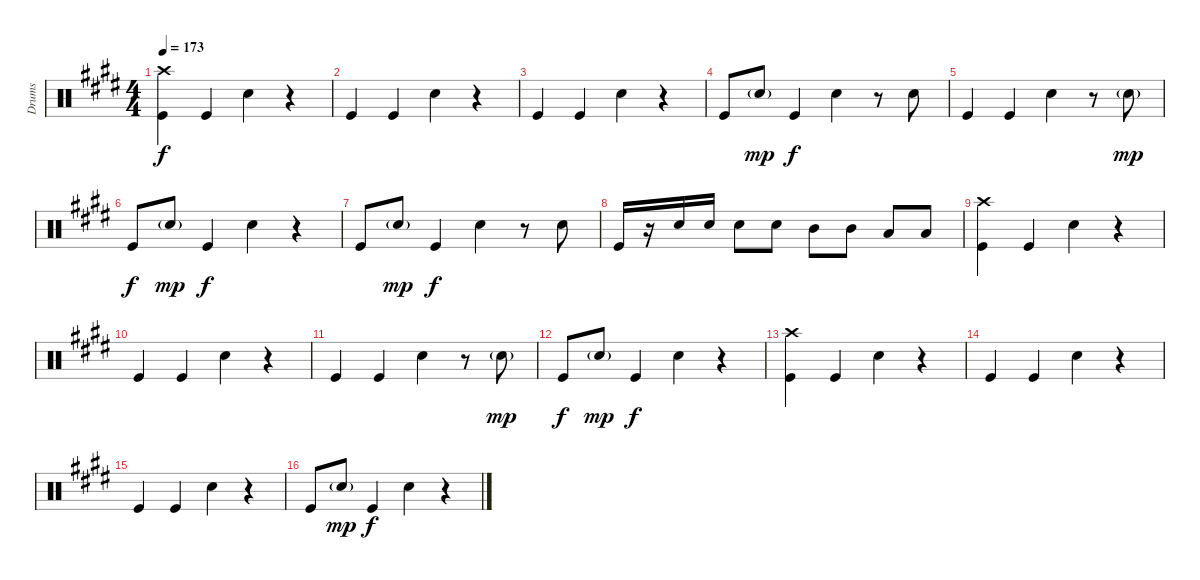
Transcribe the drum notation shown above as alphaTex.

\track ("Drums" "Drums") {instrument percussion}
\staff {score}
\articulation defaults
\ts (4 4)
\tempo 173
\clef neutral
\ks e
("Crash high (hit)" "Kick (hit)").4{dy f} "Kick (hit)".4 "Snare (hit) 2".4 r.4 |
"Kick (hit)".4 "Kick (hit)".4 "Snare (hit) 2".4 r.4 |
"Kick (hit)".4 "Kick (hit)".4 "Snare (hit) 2".4 r.4 |
"Kick (hit)".8 "Snare (hit) 2"{g}.8{dy mp} "Kick (hit)".4{dy f} "Snare (hit) 2".4 r.8 "Snare (hit) 2".8 |
"Kick (hit)".4 "Kick (hit)".4 "Snare (hit) 2".4 r.8 "Snare (hit) 2"{g}.8{dy mp} |
"Kick (hit)".8{dy f} "Snare (hit) 2"{g}.8{dy mp} "Kick (hit)".4{dy f} "Snare (hit) 2".4 r.4 |
"Kick (hit)".8 "Snare (hit) 2"{g}.8{dy mp} "Kick (hit)".4{dy f} "Snare (hit) 2".4 r.8 "Snare (hit) 2".8 |
"Kick (hit)".16 r.16 "Snare (hit) 2".16 "Snare (hit) 2".16 "Snare (hit) 2".8 "Snare (hit) 2".8 "Mid Tom (hit)".8 "Mid Tom (hit)".8 "Low Tom (hit)".8 "Low Tom (hit)".8 |
("Crash high (hit)" "Kick (hit)").4 "Kick (hit)".4 "Snare (hit) 2".4 r.4 |
"Kick (hit)".4 "Kick (hit)".4 "Snare (hit) 2".4 r.4 |
"Kick (hit)".4 "Kick (hit)".4 "Snare (hit) 2".4 r.8 "Snare (hit) 2"{g}.8{dy mp} |
"Kick (hit)".8{dy f} "Snare (hit) 2"{g}.8{dy mp} "Kick (hit)".4{dy f} "Snare (hit) 2".4 r.4 |
("Crash high (hit)" "Kick (hit)").4 "Kick (hit)".4 "Snare (hit) 2".4 r.4 |
"Kick (hit)".4 "Kick (hit)".4 "Snare (hit) 2".4 r.4 |
"Kick (hit)".4 "Kick (hit)".4 "Snare (hit) 2".4 r.4 |
"Kick (hit)".8 "Snare (hit) 2"{g}.8{dy mp} "Kick (hit)".4{dy f} "Snare (hit) 2".4 r.4
